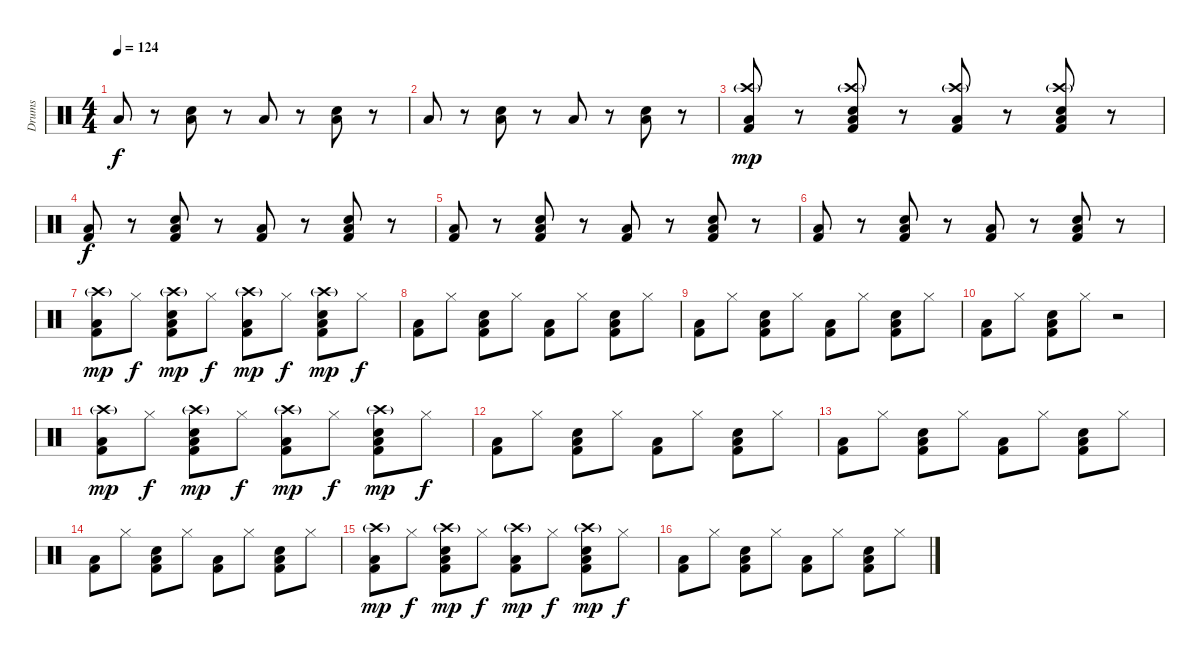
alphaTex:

\track ("Drums" "Drums") {instrument percussion}
\staff {score}
\articulation defaults
\ts (4 4)
\tempo 124
\clef neutral
\ks c "Low Floor Tom (hit)".8{dy f}
r.8 ("Electric Snare (hit)" "Low Floor Tom (hit)").8 r.8 "Low Floor Tom (hit)".8 r.8 ("Electric Snare (hit)" "Low Floor Tom (hit)").8 r.8 |
"Low Floor Tom (hit)".8 r.8 ("Electric Snare (hit)" "Low Floor Tom (hit)").8 r.8 "Low Floor Tom (hit)".8 r.8 ("Electric Snare (hit)" "Low Floor Tom (hit)").8 r.8 |
("Crash high (hit)"{g} "Kick (hit) 2" "Low Floor Tom (hit)").8{dy mp} r.8 ("Crash high (hit)"{g} "Electric Snare (hit)" "Kick (hit) 2" "Low Floor Tom (hit)").8 r.8 ("Crash high (hit)"{g} "Kick (hit) 2" "Low Floor Tom (hit)").8 r.8 ("Crash high (hit)"{g} "Electric Snare (hit)" "Kick (hit) 2" "Low Floor Tom (hit)").8 r.8 |
("Kick (hit) 2" "Low Floor Tom (hit)").8{dy f} r.8 ("Electric Snare (hit)" "Kick (hit) 2" "Low Floor Tom (hit)").8 r.8 ("Kick (hit) 2" "Low Floor Tom (hit)").8 r.8 ("Electric Snare (hit)" "Kick (hit) 2" "Low Floor Tom (hit)").8 r.8 |
("Kick (hit) 2" "Low Floor Tom (hit)").8 r.8 ("Electric Snare (hit)" "Kick (hit) 2" "Low Floor Tom (hit)").8 r.8 ("Kick (hit) 2" "Low Floor Tom (hit)").8 r.8 ("Electric Snare (hit)" "Kick (hit) 2" "Low Floor Tom (hit)").8 r.8 |
("Kick (hit) 2" "Low Floor Tom (hit)").8 r.8 ("Electric Snare (hit)" "Kick (hit) 2" "Low Floor Tom (hit)").8 r.8 ("Kick (hit) 2" "Low Floor Tom (hit)").8 r.8 ("Electric Snare (hit)" "Kick (hit) 2" "Low Floor Tom (hit)").8 r.8 |
("Crash high (hit)"{g} "Kick (hit) 2" "Low Floor Tom (hit)").8{dy mp} "Hi-Hat (closed)".8{dy f} ("Crash high (hit)"{g} "Electric Snare (hit)" "Kick (hit) 2" "Low Floor Tom (hit)").8{dy mp} "Hi-Hat (closed)".8{dy f} ("Crash high (hit)"{g} "Kick (hit) 2" "Low Floor Tom (hit)").8{dy mp} "Hi-Hat (closed)".8{dy f} ("Crash high (hit)"{g} "Electric Snare (hit)" "Kick (hit) 2" "Low Floor Tom (hit)").8{dy mp} "Hi-Hat (closed)".8{dy f} |
("Kick (hit) 2" "Low Floor Tom (hit)").8 "Hi-Hat (closed)".8 ("Electric Snare (hit)" "Kick (hit) 2" "Low Floor Tom (hit)").8 "Hi-Hat (closed)".8 ("Kick (hit) 2" "Low Floor Tom (hit)").8 "Hi-Hat (closed)".8 ("Electric Snare (hit)" "Kick (hit) 2" "Low Floor Tom (hit)").8 "Hi-Hat (closed)".8 |
("Kick (hit) 2" "Low Floor Tom (hit)").8 "Hi-Hat (closed)".8 ("Electric Snare (hit)" "Kick (hit) 2" "Low Floor Tom (hit)").8 "Hi-Hat (closed)".8 ("Kick (hit) 2" "Low Floor Tom (hit)").8 "Hi-Hat (closed)".8 ("Electric Snare (hit)" "Kick (hit) 2" "Low Floor Tom (hit)").8 "Hi-Hat (closed)".8 |
("Kick (hit) 2" "Low Floor Tom (hit)").8 "Hi-Hat (closed)".8 ("Electric Snare (hit)" "Kick (hit) 2" "Low Floor Tom (hit)").8 "Hi-Hat (closed)".8 r.2 |
("Crash high (hit)"{g} "Kick (hit) 2" "Low Floor Tom (hit)").8{dy mp} "Hi-Hat (closed)".8{dy f} ("Crash high (hit)"{g} "Electric Snare (hit)" "Kick (hit) 2" "Low Floor Tom (hit)").8{dy mp} "Hi-Hat (closed)".8{dy f} ("Crash high (hit)"{g} "Kick (hit) 2" "Low Floor Tom (hit)").8{dy mp} "Hi-Hat (closed)".8{dy f} ("Crash high (hit)"{g} "Electric Snare (hit)" "Kick (hit) 2" "Low Floor Tom (hit)").8{dy mp} "Hi-Hat (closed)".8{dy f} |
("Kick (hit) 2" "Low Floor Tom (hit)").8 "Hi-Hat (closed)".8 ("Electric Snare (hit)" "Kick (hit) 2" "Low Floor Tom (hit)").8 "Hi-Hat (closed)".8 ("Kick (hit) 2" "Low Floor Tom (hit)").8 "Hi-Hat (closed)".8 ("Electric Snare (hit)" "Kick (hit) 2" "Low Floor Tom (hit)").8 "Hi-Hat (closed)".8 |
("Kick (hit) 2" "Low Floor Tom (hit)").8 "Hi-Hat (closed)".8 ("Electric Snare (hit)" "Kick (hit) 2" "Low Floor Tom (hit)").8 "Hi-Hat (closed)".8 ("Kick (hit) 2" "Low Floor Tom (hit)").8 "Hi-Hat (closed)".8 ("Electric Snare (hit)" "Kick (hit) 2" "Low Floor Tom (hit)").8 "Hi-Hat (closed)".8 |
("Kick (hit) 2" "Low Floor Tom (hit)").8 "Hi-Hat (closed)".8 ("Electric Snare (hit)" "Kick (hit) 2" "Low Floor Tom (hit)").8 "Hi-Hat (closed)".8 ("Kick (hit) 2" "Low Floor Tom (hit)").8 "Hi-Hat (closed)".8 ("Electric Snare (hit)" "Kick (hit) 2" "Low Floor Tom (hit)").8 "Hi-Hat (closed)".8 |
("Crash high (hit)"{g} "Kick (hit) 2" "Low Floor Tom (hit)").8{dy mp} "Hi-Hat (closed)".8{dy f} ("Crash high (hit)"{g} "Electric Snare (hit)" "Kick (hit) 2" "Low Floor Tom (hit)").8{dy mp} "Hi-Hat (closed)".8{dy f} ("Crash high (hit)"{g} "Kick (hit) 2" "Low Floor Tom (hit)").8{dy mp} "Hi-Hat (closed)".8{dy f} ("Crash high (hit)"{g} "Electric Snare (hit)" "Kick (hit) 2" "Low Floor Tom (hit)").8{dy mp} "Hi-Hat (closed)".8{dy f} |
("Kick (hit) 2" "Low Floor Tom (hit)").8 "Hi-Hat (closed)".8 ("Electric Snare (hit)" "Kick (hit) 2" "Low Floor Tom (hit)").8 "Hi-Hat (closed)".8 ("Kick (hit) 2" "Low Floor Tom (hit)").8 "Hi-Hat (closed)".8 ("Electric Snare (hit)" "Kick (hit) 2" "Low Floor Tom (hit)").8 "Hi-Hat (closed)".8
